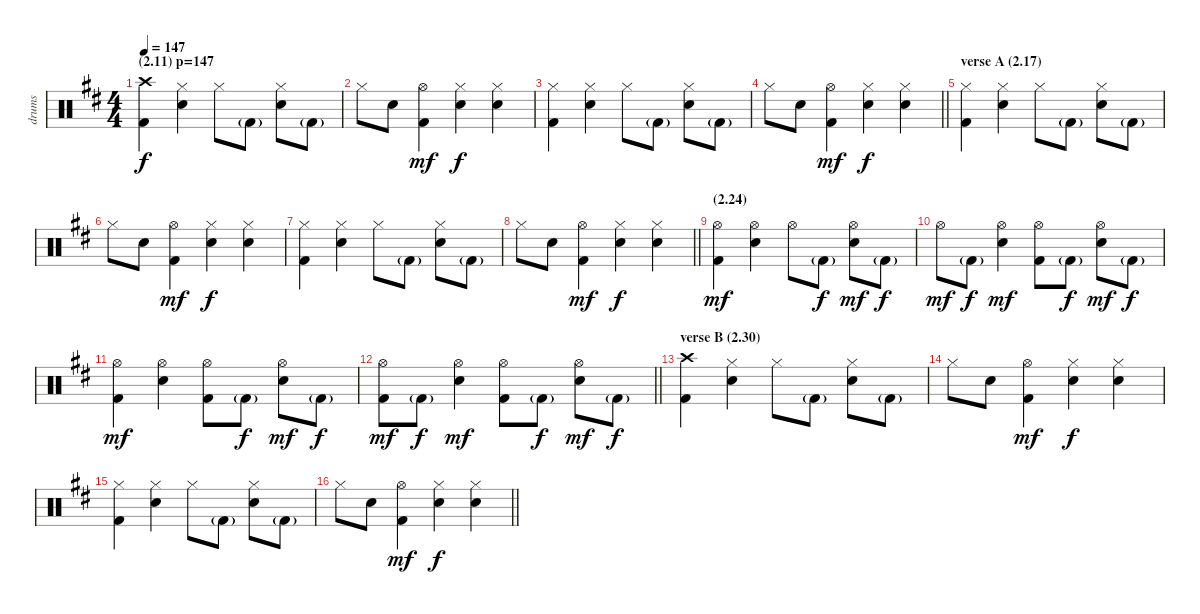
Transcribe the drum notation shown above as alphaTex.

\track ("drums" "drums") {instrument percussion}
\staff {score}
\articulation defaults
\ts (4 4)
\section ("" "(2.11) p=147")
\tempo 147
\clef neutral
\ks d
("Crash high (hit)" "Kick (hit) 2").4{dy f} ("Hi-Hat (closed)" "Electric Snare (hit)").4 "Hi-Hat (closed)".8 "Kick (hit) 2"{g}.8 ("Hi-Hat (closed)" "Electric Snare (hit)").8 "Kick (hit) 2"{g}.8 |
"Hi-Hat (closed)".8 "Electric Snare (hit)".8 ("Hi-Hat (open)" "Kick (hit) 2").4{dy mf} ("Hi-Hat (closed)" "Electric Snare (hit)").4{dy f} ("Hi-Hat (closed)" "Electric Snare (hit)").4 |
("Hi-Hat (closed)" "Kick (hit) 2").4 ("Hi-Hat (closed)" "Electric Snare (hit)").4 "Hi-Hat (closed)".8 "Kick (hit) 2"{g}.8 ("Hi-Hat (closed)" "Electric Snare (hit)").8 "Kick (hit) 2"{g}.8 |
\barLineRight lightlight "Hi-Hat (closed)".8 "Electric Snare (hit)".8
("Hi-Hat (open)" "Kick (hit) 2").4{dy mf} ("Hi-Hat (closed)" "Electric Snare (hit)").4{dy f} ("Hi-Hat (closed)" "Electric Snare (hit)").4 |
\section ("" "verse A (2.17)")
("Hi-Hat (closed)" "Kick (hit) 2").4 ("Hi-Hat (closed)" "Electric Snare (hit)").4 "Hi-Hat (closed)".8 "Kick (hit) 2"{g}.8 ("Hi-Hat (closed)" "Electric Snare (hit)").8 "Kick (hit) 2"{g}.8 |
"Hi-Hat (closed)".8 "Electric Snare (hit)".8 ("Hi-Hat (open)" "Kick (hit) 2").4{dy mf} ("Hi-Hat (closed)" "Electric Snare (hit)").4{dy f} ("Hi-Hat (closed)" "Electric Snare (hit)").4 |
("Hi-Hat (closed)" "Kick (hit) 2").4 ("Hi-Hat (closed)" "Electric Snare (hit)").4 "Hi-Hat (closed)".8 "Kick (hit) 2"{g}.8 ("Hi-Hat (closed)" "Electric Snare (hit)").8 "Kick (hit) 2"{g}.8 |
\barLineRight lightlight "Hi-Hat (closed)".8 "Electric Snare (hit)".8
("Hi-Hat (open)" "Kick (hit) 2").4{dy mf} ("Hi-Hat (closed)" "Electric Snare (hit)").4{dy f} ("Hi-Hat (closed)" "Electric Snare (hit)").4 |
\section ("" "(2.24)")
("Hi-Hat (open)" "Kick (hit) 2").4{dy mf} ("Hi-Hat (open)" "Electric Snare (hit)").4 "Hi-Hat (open)".8 "Kick (hit) 2"{g}.8{dy f} ("Hi-Hat (open)" "Electric Snare (hit)").8{dy mf} "Kick (hit) 2"{g}.8{dy f} |
"Hi-Hat (open)".8{dy mf} "Kick (hit) 2"{g}.8{dy f} ("Hi-Hat (open)" "Electric Snare (hit)").4{dy mf} ("Hi-Hat (open)" "Kick (hit) 2").8 "Kick (hit) 2"{g}.8{dy f} ("Hi-Hat (open)" "Electric Snare (hit)").8{dy mf} "Kick (hit) 2"{g}.8{dy f} |
("Hi-Hat (open)" "Kick (hit) 2").4{dy mf} ("Hi-Hat (open)" "Electric Snare (hit)").4 ("Hi-Hat (open)" "Kick (hit) 2").8 "Kick (hit) 2"{g}.8{dy f} ("Hi-Hat (open)" "Electric Snare (hit)").8{dy mf} "Kick (hit) 2"{g}.8{dy f} |
\barLineRight lightlight
("Hi-Hat (open)" "Kick (hit) 2").8{dy mf} "Kick (hit) 2"{g}.8{dy f} ("Hi-Hat (open)" "Electric Snare (hit)").4{dy mf} ("Hi-Hat (open)" "Kick (hit) 2").8 "Kick (hit) 2"{g}.8{dy f} ("Hi-Hat (open)" "Electric Snare (hit)").8{dy mf} "Kick (hit) 2"{g}.8{dy f} |
\section ("" "verse B (2.30)")
("Crash high (hit)" "Kick (hit) 2").4 ("Hi-Hat (closed)" "Electric Snare (hit)").4 "Hi-Hat (closed)".8 "Kick (hit) 2"{g}.8 ("Hi-Hat (closed)" "Electric Snare (hit)").8 "Kick (hit) 2"{g}.8 |
"Hi-Hat (closed)".8 "Electric Snare (hit)".8 ("Hi-Hat (open)" "Kick (hit) 2").4{dy mf} ("Hi-Hat (closed)" "Electric Snare (hit)").4{dy f} ("Hi-Hat (closed)" "Electric Snare (hit)").4 |
("Hi-Hat (closed)" "Kick (hit) 2").4 ("Hi-Hat (closed)" "Electric Snare (hit)").4 "Hi-Hat (closed)".8 "Kick (hit) 2"{g}.8 ("Hi-Hat (closed)" "Electric Snare (hit)").8 "Kick (hit) 2"{g}.8 |
\barLineRight lightlight "Hi-Hat (closed)".8 "Electric Snare (hit)".8
("Hi-Hat (open)" "Kick (hit) 2").4{dy mf} ("Hi-Hat (closed)" "Electric Snare (hit)").4{dy f} ("Hi-Hat (closed)" "Electric Snare (hit)").4
